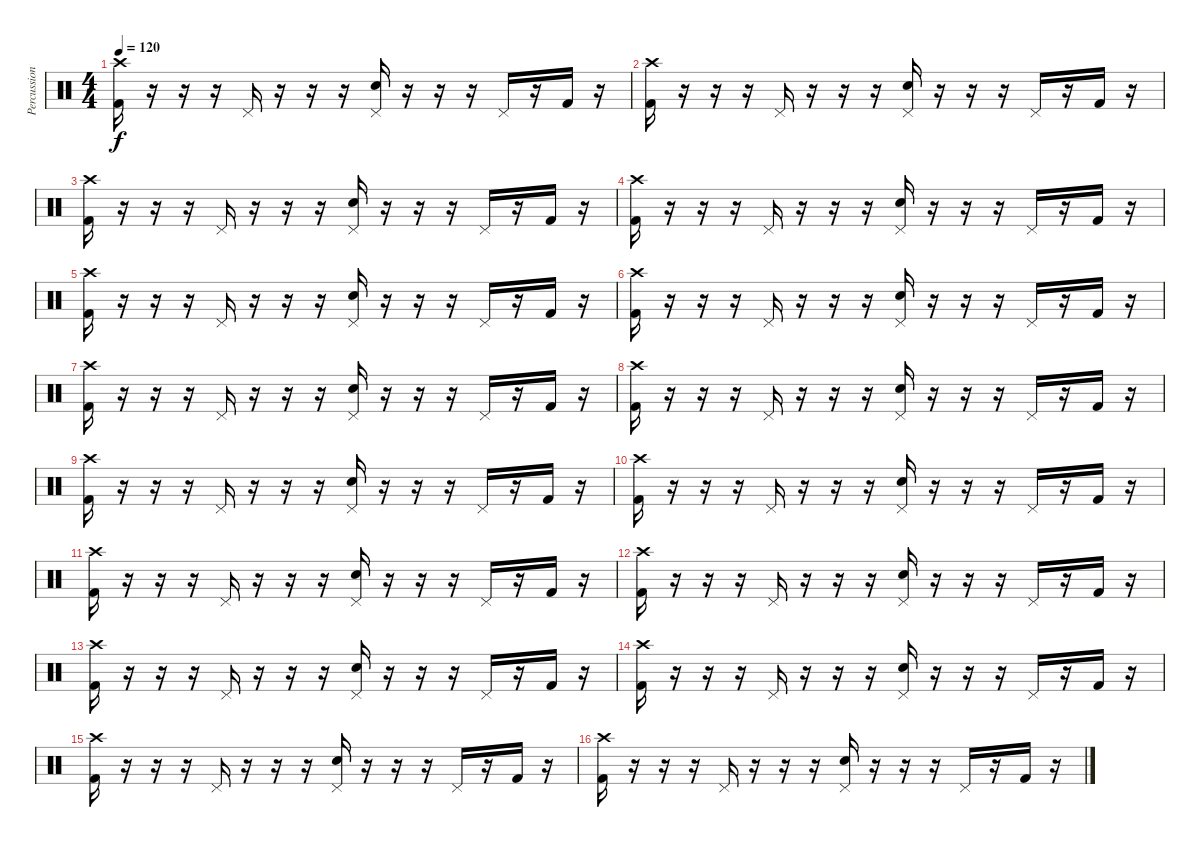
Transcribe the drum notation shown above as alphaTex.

\track ("Percussion" "Percussion") {instrument percussion}
\staff {score}
\articulation defaults
\ts (4 4)
\tempo 120
\clef neutral
\ks c
("Kick (hit) 2" "Crash high (hit)").16{dy f} r.16 r.16 r.16 "Pedal Hi-Hat (hit)".16 r.16 r.16 r.16 ("Electric Snare (hit)" "Pedal Hi-Hat (hit)").16 r.16 r.16 r.16 "Pedal Hi-Hat (hit)".16 r.16 "Kick (hit) 2".16 r.16 |
("Kick (hit) 2" "Crash high (hit)").16 r.16 r.16 r.16 "Pedal Hi-Hat (hit)".16 r.16 r.16 r.16 ("Electric Snare (hit)" "Pedal Hi-Hat (hit)").16 r.16 r.16 r.16 "Pedal Hi-Hat (hit)".16 r.16 "Kick (hit) 2".16 r.16 |
("Kick (hit) 2" "Crash high (hit)").16 r.16 r.16 r.16 "Pedal Hi-Hat (hit)".16 r.16 r.16 r.16 ("Electric Snare (hit)" "Pedal Hi-Hat (hit)").16 r.16 r.16 r.16 "Pedal Hi-Hat (hit)".16 r.16 "Kick (hit) 2".16 r.16 |
("Kick (hit) 2" "Crash high (hit)").16 r.16 r.16 r.16 "Pedal Hi-Hat (hit)".16 r.16 r.16 r.16 ("Electric Snare (hit)" "Pedal Hi-Hat (hit)").16 r.16 r.16 r.16 "Pedal Hi-Hat (hit)".16 r.16 "Kick (hit) 2".16 r.16 |
("Kick (hit) 2" "Crash high (hit)").16 r.16 r.16 r.16 "Pedal Hi-Hat (hit)".16 r.16 r.16 r.16 ("Electric Snare (hit)" "Pedal Hi-Hat (hit)").16 r.16 r.16 r.16 "Pedal Hi-Hat (hit)".16 r.16 "Kick (hit) 2".16 r.16 |
("Kick (hit) 2" "Crash high (hit)").16 r.16 r.16 r.16 "Pedal Hi-Hat (hit)".16 r.16 r.16 r.16 ("Electric Snare (hit)" "Pedal Hi-Hat (hit)").16 r.16 r.16 r.16 "Pedal Hi-Hat (hit)".16 r.16 "Kick (hit) 2".16 r.16 |
("Kick (hit) 2" "Crash high (hit)").16 r.16 r.16 r.16 "Pedal Hi-Hat (hit)".16 r.16 r.16 r.16 ("Electric Snare (hit)" "Pedal Hi-Hat (hit)").16 r.16 r.16 r.16 "Pedal Hi-Hat (hit)".16 r.16 "Kick (hit) 2".16 r.16 |
("Kick (hit) 2" "Crash high (hit)").16 r.16 r.16 r.16 "Pedal Hi-Hat (hit)".16 r.16 r.16 r.16 ("Electric Snare (hit)" "Pedal Hi-Hat (hit)").16 r.16 r.16 r.16 "Pedal Hi-Hat (hit)".16 r.16 "Kick (hit) 2".16 r.16 |
("Kick (hit) 2" "Crash high (hit)").16 r.16 r.16 r.16 "Pedal Hi-Hat (hit)".16 r.16 r.16 r.16 ("Electric Snare (hit)" "Pedal Hi-Hat (hit)").16 r.16 r.16 r.16 "Pedal Hi-Hat (hit)".16 r.16 "Kick (hit) 2".16 r.16 |
("Kick (hit) 2" "Crash high (hit)").16 r.16 r.16 r.16 "Pedal Hi-Hat (hit)".16 r.16 r.16 r.16 ("Electric Snare (hit)" "Pedal Hi-Hat (hit)").16 r.16 r.16 r.16 "Pedal Hi-Hat (hit)".16 r.16 "Kick (hit) 2".16 r.16 |
("Kick (hit) 2" "Crash high (hit)").16 r.16 r.16 r.16 "Pedal Hi-Hat (hit)".16 r.16 r.16 r.16 ("Electric Snare (hit)" "Pedal Hi-Hat (hit)").16 r.16 r.16 r.16 "Pedal Hi-Hat (hit)".16 r.16 "Kick (hit) 2".16 r.16 |
("Kick (hit) 2" "Crash high (hit)").16 r.16 r.16 r.16 "Pedal Hi-Hat (hit)".16 r.16 r.16 r.16 ("Electric Snare (hit)" "Pedal Hi-Hat (hit)").16 r.16 r.16 r.16 "Pedal Hi-Hat (hit)".16 r.16 "Kick (hit) 2".16 r.16 |
("Kick (hit) 2" "Crash high (hit)").16 r.16 r.16 r.16 "Pedal Hi-Hat (hit)".16 r.16 r.16 r.16 ("Electric Snare (hit)" "Pedal Hi-Hat (hit)").16 r.16 r.16 r.16 "Pedal Hi-Hat (hit)".16 r.16 "Kick (hit) 2".16 r.16 |
("Kick (hit) 2" "Crash high (hit)").16 r.16 r.16 r.16 "Pedal Hi-Hat (hit)".16 r.16 r.16 r.16 ("Electric Snare (hit)" "Pedal Hi-Hat (hit)").16 r.16 r.16 r.16 "Pedal Hi-Hat (hit)".16 r.16 "Kick (hit) 2".16 r.16 |
("Kick (hit) 2" "Crash high (hit)").16 r.16 r.16 r.16 "Pedal Hi-Hat (hit)".16 r.16 r.16 r.16 ("Electric Snare (hit)" "Pedal Hi-Hat (hit)").16 r.16 r.16 r.16 "Pedal Hi-Hat (hit)".16 r.16 "Kick (hit) 2".16 r.16 |
("Kick (hit) 2" "Crash high (hit)").16 r.16 r.16 r.16 "Pedal Hi-Hat (hit)".16 r.16 r.16 r.16 ("Electric Snare (hit)" "Pedal Hi-Hat (hit)").16 r.16 r.16 r.16 "Pedal Hi-Hat (hit)".16 r.16 "Kick (hit) 2".16 r.16
